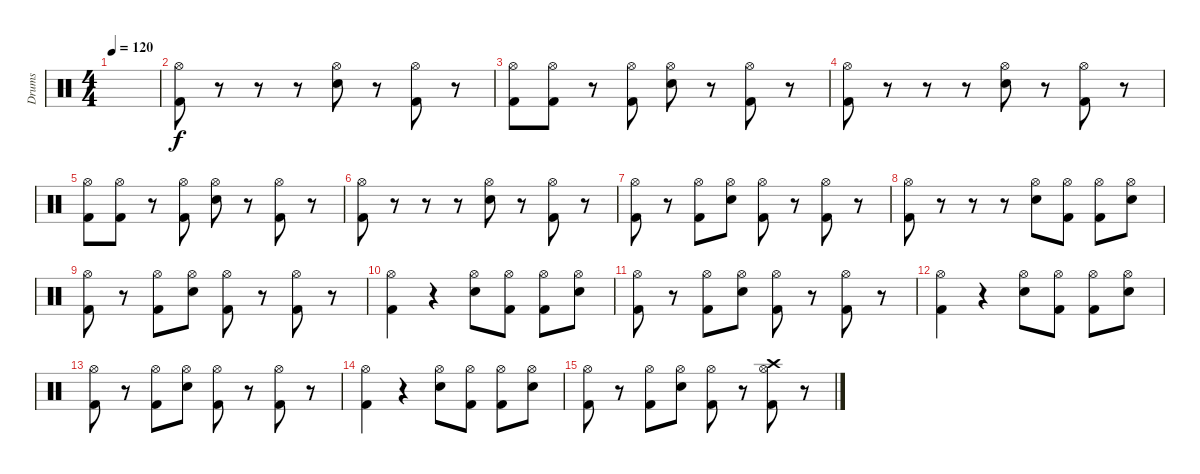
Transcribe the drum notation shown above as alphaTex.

\track ("Drums" "Drums") {instrument percussion}
\staff {score}
\articulation defaults
\ts (4 4)
\tempo 120
\clef neutral
\ks c
|
("Hi-Hat (open)" "Kick (hit) 2").8 r.8 r.8 r.8 ("Hi-Hat (open)" "Electric Snare (hit)").8 r.8 ("Hi-Hat (open)" "Kick (hit) 2").8 r.8 |
("Hi-Hat (open)" "Kick (hit) 2").8 ("Hi-Hat (open)" "Kick (hit) 2").8 r.8 ("Hi-Hat (open)" "Kick (hit) 2").8 ("Hi-Hat (open)" "Electric Snare (hit)").8 r.8 ("Hi-Hat (open)" "Kick (hit) 2").8 r.8 |
("Hi-Hat (open)" "Kick (hit) 2").8 r.8 r.8 r.8 ("Hi-Hat (open)" "Electric Snare (hit)").8 r.8 ("Hi-Hat (open)" "Kick (hit) 2").8 r.8 |
("Hi-Hat (open)" "Kick (hit) 2").8 ("Hi-Hat (open)" "Kick (hit) 2").8 r.8 ("Hi-Hat (open)" "Kick (hit) 2").8 ("Hi-Hat (open)" "Electric Snare (hit)").8 r.8 ("Hi-Hat (open)" "Kick (hit) 2").8 r.8 |
("Hi-Hat (open)" "Kick (hit) 2").8 r.8 r.8 r.8 ("Hi-Hat (open)" "Electric Snare (hit)").8 r.8 ("Hi-Hat (open)" "Kick (hit) 2").8 r.8 |
("Hi-Hat (open)" "Kick (hit) 2").8 r.8 ("Hi-Hat (open)" "Kick (hit) 2").8 ("Hi-Hat (open)" "Electric Snare (hit)").8 ("Hi-Hat (open)" "Kick (hit) 2").8 r.8 ("Hi-Hat (open)" "Kick (hit) 2").8 r.8 |
("Hi-Hat (open)" "Kick (hit) 2").8 r.8 r.8 r.8 ("Hi-Hat (open)" "Electric Snare (hit)").8 ("Hi-Hat (open)" "Kick (hit) 2").8 ("Hi-Hat (open)" "Kick (hit) 2").8 ("Hi-Hat (open)" "Electric Snare (hit)").8 |
("Hi-Hat (open)" "Kick (hit) 2").8 r.8 ("Hi-Hat (open)" "Kick (hit) 2").8 ("Hi-Hat (open)" "Electric Snare (hit)").8 ("Hi-Hat (open)" "Kick (hit) 2").8 r.8 ("Hi-Hat (open)" "Kick (hit) 2").8 r.8 |
("Hi-Hat (open)" "Kick (hit) 2").4 r.4 ("Hi-Hat (open)" "Electric Snare (hit)").8 ("Hi-Hat (open)" "Kick (hit) 2").8 ("Hi-Hat (open)" "Kick (hit) 2").8 ("Hi-Hat (open)" "Electric Snare (hit)").8 |
("Hi-Hat (open)" "Kick (hit) 2").8 r.8 ("Hi-Hat (open)" "Kick (hit) 2").8 ("Hi-Hat (open)" "Electric Snare (hit)").8 ("Hi-Hat (open)" "Kick (hit) 2").8 r.8 ("Hi-Hat (open)" "Kick (hit) 2").8 r.8 |
("Hi-Hat (open)" "Kick (hit) 2").4 r.4 ("Hi-Hat (open)" "Electric Snare (hit)").8 ("Hi-Hat (open)" "Kick (hit) 2").8 ("Hi-Hat (open)" "Kick (hit) 2").8 ("Hi-Hat (open)" "Electric Snare (hit)").8 |
("Hi-Hat (open)" "Kick (hit) 2").8 r.8 ("Hi-Hat (open)" "Kick (hit) 2").8 ("Hi-Hat (open)" "Electric Snare (hit)").8 ("Hi-Hat (open)" "Kick (hit) 2").8 r.8 ("Hi-Hat (open)" "Kick (hit) 2").8 r.8 |
("Hi-Hat (open)" "Kick (hit) 2").4 r.4 ("Hi-Hat (open)" "Electric Snare (hit)").8 ("Hi-Hat (open)" "Kick (hit) 2").8 ("Hi-Hat (open)" "Kick (hit) 2").8 ("Hi-Hat (open)" "Electric Snare (hit)").8 |
("Hi-Hat (open)" "Kick (hit) 2").8 r.8 ("Hi-Hat (open)" "Kick (hit) 2").8 ("Hi-Hat (open)" "Electric Snare (hit)").8 ("Hi-Hat (open)" "Kick (hit) 2").8 r.8 ("Crash high (hit)" "Hi-Hat (open)" "Kick (hit) 2").8 r.8
